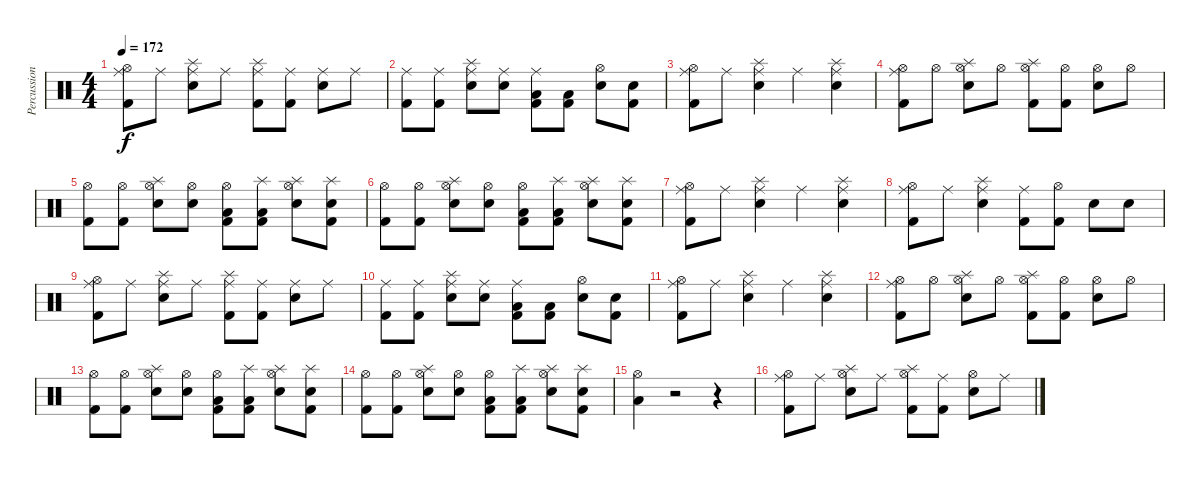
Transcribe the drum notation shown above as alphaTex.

\track ("Percussion" "Percussion") {instrument percussion}
\staff {score}
\articulation defaults
\ts (4 4)
\tempo 172
\clef neutral
\ks c
("Hi-Hat (open)" "Ride (middle)" "Kick (hit) 2").8{dy f} "Ride (middle)".8 ("Ride (middle)" "Splash (hit)" "Electric Snare (hit)").8 "Ride (middle)".8 ("Ride (middle)" "Splash (hit)" "Kick (hit) 2").8 ("Ride (middle)" "Kick (hit) 2").8 ("Ride (middle)" "Electric Snare (hit)").8 "Ride (middle)".8 |
("Ride (middle)" "Kick (hit) 2").8 ("Ride (middle)" "Kick (hit) 2").8 ("Ride (middle)" "Splash (hit)" "Electric Snare (hit)").8 ("Ride (middle)" "Electric Snare (hit)").8 ("Ride (middle)" "Kick (hit) 2" "Low Floor Tom (hit)").8 ("Kick (hit) 2" "Low Floor Tom (hit)").8 ("Hi-Hat (open)" "Snare (hit) 2").8 ("Electric Snare (hit)" "Kick (hit) 2").8 |
("Hi-Hat (open)" "Ride (middle)" "Kick (hit) 2").8 "Ride (middle)".8 ("Ride (middle)" "Splash (hit)" "Electric Snare (hit)").4 "Ride (middle)".4 ("Ride (middle)" "Splash (hit)" "Electric Snare (hit)").4 |
("Hi-Hat (open)" "Ride (middle)" "Kick (hit) 2").8 "Hi-Hat (open)".8 ("Hi-Hat (open)" "Splash (hit)" "Electric Snare (hit)").8 "Hi-Hat (open)".8 ("Hi-Hat (open)" "Splash (hit)" "Kick (hit) 2").8 ("Hi-Hat (open)" "Kick (hit) 2").8 ("Hi-Hat (open)" "Electric Snare (hit)").8 "Hi-Hat (open)".8 |
("Hi-Hat (open)" "Kick (hit) 2").8 ("Hi-Hat (open)" "Kick (hit) 2").8 ("Hi-Hat (open)" "Splash (hit)" "Electric Snare (hit)").8 ("Hi-Hat (open)" "Electric Snare (hit)").8 ("Hi-Hat (open)" "Kick (hit) 2" "Low Floor Tom (hit)").8 ("Splash (hit)" "Kick (hit) 2" "Low Floor Tom (hit)").8 ("Splash (hit)" "Hi-Hat (open)" "Snare (hit) 2").8 ("Splash (hit)" "Electric Snare (hit)" "Kick (hit) 2").8 |
("Hi-Hat (open)" "Kick (hit) 2").8 ("Hi-Hat (open)" "Kick (hit) 2").8 ("Hi-Hat (open)" "Splash (hit)" "Electric Snare (hit)").8 ("Hi-Hat (open)" "Electric Snare (hit)").8 ("Hi-Hat (open)" "Kick (hit) 2" "Low Floor Tom (hit)").8 ("Splash (hit)" "Kick (hit) 2" "Low Floor Tom (hit)").8 ("Splash (hit)" "Hi-Hat (open)" "Snare (hit) 2").8 ("Splash (hit)" "Electric Snare (hit)" "Kick (hit) 2").8 |
("Hi-Hat (open)" "Ride (middle)" "Kick (hit) 2").8 "Ride (middle)".8 ("Ride (middle)" "Splash (hit)" "Electric Snare (hit)").4 "Ride (middle)".4 ("Ride (middle)" "Splash (hit)" "Electric Snare (hit)").4 |
("Hi-Hat (open)" "Ride (middle)" "Kick (hit) 2").8 "Ride (middle)".8 ("Ride (middle)" "Splash (hit)" "Electric Snare (hit)").4 ("Ride (middle)" "Kick (hit) 2").8 ("Hi-Hat (open)" "Kick (hit) 2").8 "Electric Snare (hit)".8 "Snare (hit) 2".8 |
("Hi-Hat (open)" "Ride (middle)" "Kick (hit) 2").8 "Ride (middle)".8 ("Ride (middle)" "Splash (hit)" "Electric Snare (hit)").8 "Ride (middle)".8 ("Ride (middle)" "Splash (hit)" "Kick (hit) 2").8 ("Ride (middle)" "Kick (hit) 2").8 ("Ride (middle)" "Electric Snare (hit)").8 "Ride (middle)".8 |
("Ride (middle)" "Kick (hit) 2").8 ("Ride (middle)" "Kick (hit) 2").8 ("Ride (middle)" "Splash (hit)" "Electric Snare (hit)").8 ("Ride (middle)" "Electric Snare (hit)").8 ("Ride (middle)" "Kick (hit) 2" "Low Floor Tom (hit)").8 ("Kick (hit) 2" "Low Floor Tom (hit)").8 ("Hi-Hat (open)" "Snare (hit) 2").8 ("Electric Snare (hit)" "Kick (hit) 2").8 |
("Hi-Hat (open)" "Ride (middle)" "Kick (hit) 2").8 "Ride (middle)".8 ("Ride (middle)" "Splash (hit)" "Electric Snare (hit)").4 "Ride (middle)".4 ("Ride (middle)" "Splash (hit)" "Electric Snare (hit)").4 |
("Hi-Hat (open)" "Ride (middle)" "Kick (hit) 2").8 "Hi-Hat (open)".8 ("Hi-Hat (open)" "Splash (hit)" "Electric Snare (hit)").8 "Hi-Hat (open)".8 ("Hi-Hat (open)" "Splash (hit)" "Kick (hit) 2").8 ("Hi-Hat (open)" "Kick (hit) 2").8 ("Hi-Hat (open)" "Electric Snare (hit)").8 "Hi-Hat (open)".8 |
("Hi-Hat (open)" "Kick (hit) 2").8 ("Hi-Hat (open)" "Kick (hit) 2").8 ("Hi-Hat (open)" "Splash (hit)" "Electric Snare (hit)").8 ("Hi-Hat (open)" "Electric Snare (hit)").8 ("Hi-Hat (open)" "Kick (hit) 2" "Low Floor Tom (hit)").8 ("Splash (hit)" "Kick (hit) 2" "Low Floor Tom (hit)").8 ("Splash (hit)" "Hi-Hat (open)" "Snare (hit) 2").8 ("Splash (hit)" "Electric Snare (hit)" "Kick (hit) 2").8 |
("Hi-Hat (open)" "Kick (hit) 2").8 ("Hi-Hat (open)" "Kick (hit) 2").8 ("Hi-Hat (open)" "Splash (hit)" "Electric Snare (hit)").8 ("Hi-Hat (open)" "Electric Snare (hit)").8 ("Hi-Hat (open)" "Kick (hit) 2" "Low Floor Tom (hit)").8 ("Splash (hit)" "Kick (hit) 2" "Low Floor Tom (hit)").8 ("Splash (hit)" "Hi-Hat (open)" "Snare (hit) 2").8 ("Splash (hit)" "Electric Snare (hit)" "Kick (hit) 2").8 |
("Hi-Hat (open)" "Low Floor Tom (hit)").4 r.2 r.4 |
("Hi-Hat (open)" "Ride (middle)" "Kick (hit) 2").8 "Ride (middle)".8 ("Hi-Hat (open)" "Splash (hit)" "Electric Snare (hit)").8 "Ride (middle)".8 ("Hi-Hat (open)" "Splash (hit)" "Kick (hit) 2").8 ("Ride (middle)" "Kick (hit) 2").8 ("Hi-Hat (open)" "Electric Snare (hit)").8 "Ride (middle)".8
